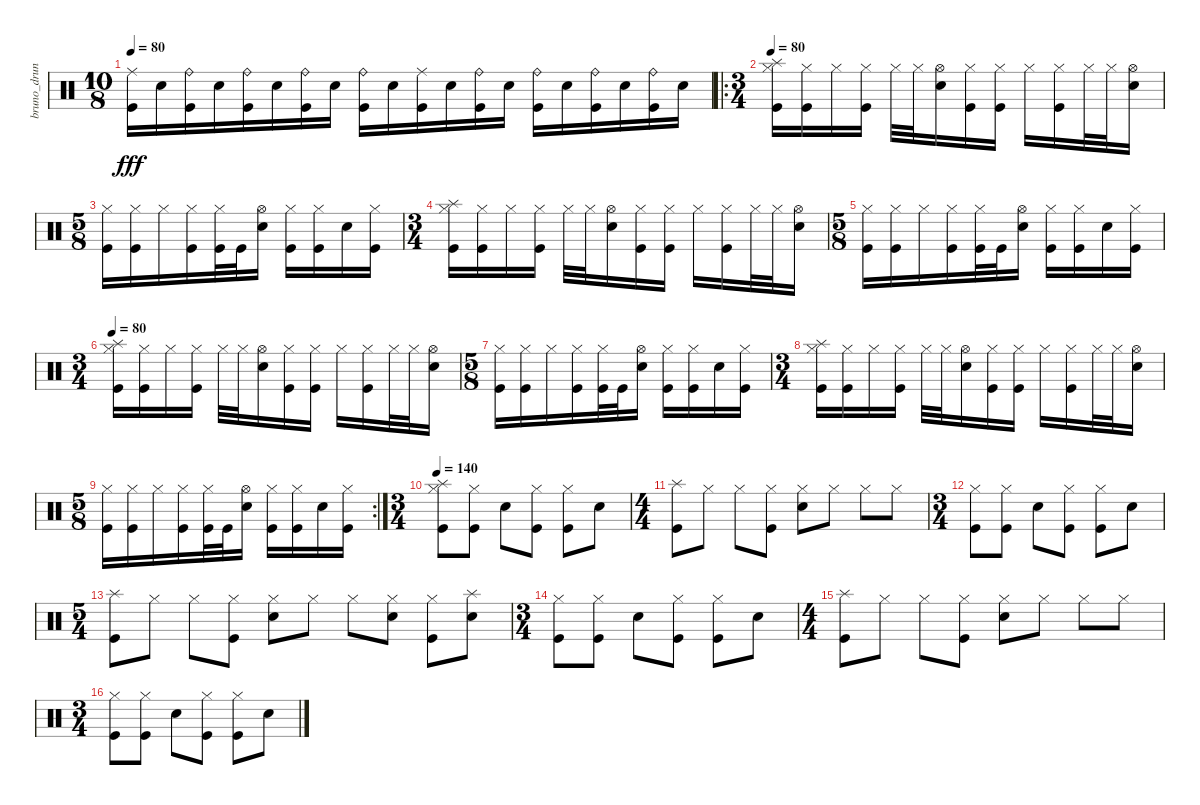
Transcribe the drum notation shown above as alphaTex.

\track ("bruno_druns" "bruno_drun") {instrument percussion}
\staff {score}
\articulation defaults
\ts (10 8)
\tempo 80
\clef neutral
\ks c
("Kick (hit)" "Ride (middle)").16{dy fff} "Electric Snare (hit)".16 ("Kick (hit)" "Ride (bell)").16 "Electric Snare (hit)".16 ("Kick (hit)" "Ride (bell)").16 "Electric Snare (hit)".16 ("Kick (hit)" "Ride (bell)").16 "Electric Snare (hit)".16 ("Kick (hit)" "Ride (bell)").16 "Electric Snare (hit)".16 ("Kick (hit)" "Ride (middle)").16 "Electric Snare (hit)".16 ("Kick (hit)" "Ride (bell)").16 "Electric Snare (hit)".16 ("Kick (hit)" "Ride (bell)").16 "Electric Snare (hit)".16 ("Kick (hit)" "Ride (bell)").16 "Electric Snare (hit)".16 ("Kick (hit)" "Ride (bell)").16 "Electric Snare (hit)".16 |
\ro
\ts (3 4)
\tempo 80
("Kick (hit)" "Hi-Hat (closed)" "Splash (hit)").16 ("Kick (hit)" "Hi-Hat (closed)").16 "Hi-Hat (closed)".16 ("Kick (hit)" "Hi-Hat (closed)").16 "Hi-Hat (closed)".32 "Hi-Hat (closed)".32 ("Electric Snare (hit)" "Hi-Hat (open)").16 ("Kick (hit)" "Hi-Hat (closed)").16 ("Kick (hit)" "Hi-Hat (closed)").16 "Hi-Hat (closed)".16 ("Kick (hit)" "Hi-Hat (closed)").16 "Hi-Hat (closed)".32 "Hi-Hat (closed)".32 ("Electric Snare (hit)" "Hi-Hat (open)").16 |
\ts (5 8)
("Kick (hit)" "Hi-Hat (closed)").16 ("Kick (hit)" "Hi-Hat (closed)").16 "Hi-Hat (closed)".16 ("Kick (hit)" "Hi-Hat (closed)").16 ("Kick (hit)" "Hi-Hat (closed)").32 "Kick (hit)".32 ("Electric Snare (hit)" "Hi-Hat (open)").16 ("Kick (hit)" "Hi-Hat (closed)").16 ("Kick (hit)" "Hi-Hat (closed)").16 "Electric Snare (hit)".16 ("Kick (hit)" "Hi-Hat (closed)").16 |
\ts (3 4)
("Kick (hit)" "Hi-Hat (closed)" "Splash (hit)").16 ("Kick (hit)" "Hi-Hat (closed)").16 "Hi-Hat (closed)".16 ("Kick (hit)" "Hi-Hat (closed)").16 "Hi-Hat (closed)".32 "Hi-Hat (closed)".32 ("Electric Snare (hit)" "Hi-Hat (open)").16 ("Kick (hit)" "Hi-Hat (closed)").16 ("Kick (hit)" "Hi-Hat (closed)").16 "Hi-Hat (closed)".16 ("Kick (hit)" "Hi-Hat (closed)").16 "Hi-Hat (closed)".32 "Hi-Hat (closed)".32 ("Electric Snare (hit)" "Hi-Hat (open)").16 |
\ts (5 8)
("Kick (hit)" "Hi-Hat (closed)").16 ("Kick (hit)" "Hi-Hat (closed)").16 "Hi-Hat (closed)".16 ("Kick (hit)" "Hi-Hat (closed)").16 ("Kick (hit)" "Hi-Hat (closed)").32 "Kick (hit)".32 ("Electric Snare (hit)" "Hi-Hat (open)").16 ("Kick (hit)" "Hi-Hat (closed)").16 ("Kick (hit)" "Hi-Hat (closed)").16 "Electric Snare (hit)".16 ("Kick (hit)" "Hi-Hat (closed)").16 |
\ts (3 4)
\tempo 80
("Kick (hit)" "Hi-Hat (closed)" "Splash (hit)").16 ("Kick (hit)" "Hi-Hat (closed)").16 "Hi-Hat (closed)".16 ("Kick (hit)" "Hi-Hat (closed)").16 "Hi-Hat (closed)".32 "Hi-Hat (closed)".32 ("Electric Snare (hit)" "Hi-Hat (open)").16 ("Kick (hit)" "Hi-Hat (closed)").16 ("Kick (hit)" "Hi-Hat (closed)").16 "Hi-Hat (closed)".16 ("Kick (hit)" "Hi-Hat (closed)").16 "Hi-Hat (closed)".32 "Hi-Hat (closed)".32 ("Electric Snare (hit)" "Hi-Hat (open)").16 |
\ts (5 8)
("Kick (hit)" "Hi-Hat (closed)").16 ("Kick (hit)" "Hi-Hat (closed)").16 "Hi-Hat (closed)".16 ("Kick (hit)" "Hi-Hat (closed)").16 ("Kick (hit)" "Hi-Hat (closed)").32 "Kick (hit)".32 ("Electric Snare (hit)" "Hi-Hat (open)").16 ("Kick (hit)" "Hi-Hat (closed)").16 ("Kick (hit)" "Hi-Hat (closed)").16 "Electric Snare (hit)".16 ("Kick (hit)" "Hi-Hat (closed)").16 |
\ts (3 4)
("Kick (hit)" "Hi-Hat (closed)" "Splash (hit)").16 ("Kick (hit)" "Hi-Hat (closed)").16 "Hi-Hat (closed)".16 ("Kick (hit)" "Hi-Hat (closed)").16 "Hi-Hat (closed)".32 "Hi-Hat (closed)".32 ("Electric Snare (hit)" "Hi-Hat (open)").16 ("Kick (hit)" "Hi-Hat (closed)").16 ("Kick (hit)" "Hi-Hat (closed)").16 "Hi-Hat (closed)".16 ("Kick (hit)" "Hi-Hat (closed)").16 "Hi-Hat (closed)".32 "Hi-Hat (closed)".32 ("Electric Snare (hit)" "Hi-Hat (open)").16 |
\rc 2
\ts (5 8)
("Kick (hit)" "Hi-Hat (closed)").16 ("Kick (hit)" "Hi-Hat (closed)").16 "Hi-Hat (closed)".16 ("Kick (hit)" "Hi-Hat (closed)").16 ("Kick (hit)" "Hi-Hat (closed)").32 "Kick (hit)".32 ("Electric Snare (hit)" "Hi-Hat (open)").16 ("Kick (hit)" "Hi-Hat (closed)").16 ("Kick (hit)" "Hi-Hat (closed)").16 "Electric Snare (hit)".16 ("Kick (hit)" "Hi-Hat (closed)").16 |
\ts (3 4)
\tempo 140
("Kick (hit)" "Hi-Hat (closed)" "Splash (hit)").8 ("Kick (hit)" "Hi-Hat (closed)").8 "Electric Snare (hit)".8 ("Kick (hit)" "Hi-Hat (closed)").8 ("Kick (hit)" "Hi-Hat (closed)").8 "Electric Snare (hit)".8 |
\ts (4 4)
("Kick (hit)" "Splash (hit)").8 "Hi-Hat (closed)".8 "Hi-Hat (closed)".8 ("Kick (hit)" "Hi-Hat (closed)").8 ("Electric Snare (hit)" "Hi-Hat (closed)").8 "Hi-Hat (closed)".8 "Hi-Hat (closed)".8 "Hi-Hat (closed)".8 |
\ts (3 4)
("Kick (hit)" "Hi-Hat (closed)").8 ("Kick (hit)" "Hi-Hat (closed)").8 "Electric Snare (hit)".8 ("Kick (hit)" "Hi-Hat (closed)").8 ("Kick (hit)" "Hi-Hat (closed)").8 "Electric Snare (hit)".8 |
\ts (5 4)
("Kick (hit)" "Splash (hit)").8 "Hi-Hat (closed)".8 "Hi-Hat (closed)".8 ("Kick (hit)" "Hi-Hat (closed)").8 ("Electric Snare (hit)" "Hi-Hat (closed)").8 "Hi-Hat (closed)".8 "Hi-Hat (closed)".8 ("Electric Snare (hit)" "Hi-Hat (closed)").8 ("Kick (hit)" "Hi-Hat (closed)").8 ("Electric Snare (hit)" "Splash (hit)").8 |
\ts (3 4)
("Kick (hit)" "Hi-Hat (closed)").8 ("Kick (hit)" "Hi-Hat (closed)").8 "Electric Snare (hit)".8 ("Kick (hit)" "Hi-Hat (closed)").8 ("Kick (hit)" "Hi-Hat (closed)").8 "Electric Snare (hit)".8 |
\ts (4 4)
("Kick (hit)" "Splash (hit)").8 "Hi-Hat (closed)".8 "Hi-Hat (closed)".8 ("Kick (hit)" "Hi-Hat (closed)").8 ("Electric Snare (hit)" "Hi-Hat (closed)").8 "Hi-Hat (closed)".8 "Hi-Hat (closed)".8 "Hi-Hat (closed)".8 |
\ts (3 4)
("Kick (hit)" "Hi-Hat (closed)").8 ("Kick (hit)" "Hi-Hat (closed)").8 "Electric Snare (hit)".8 ("Kick (hit)" "Hi-Hat (closed)").8 ("Kick (hit)" "Hi-Hat (closed)").8 "Electric Snare (hit)".8
